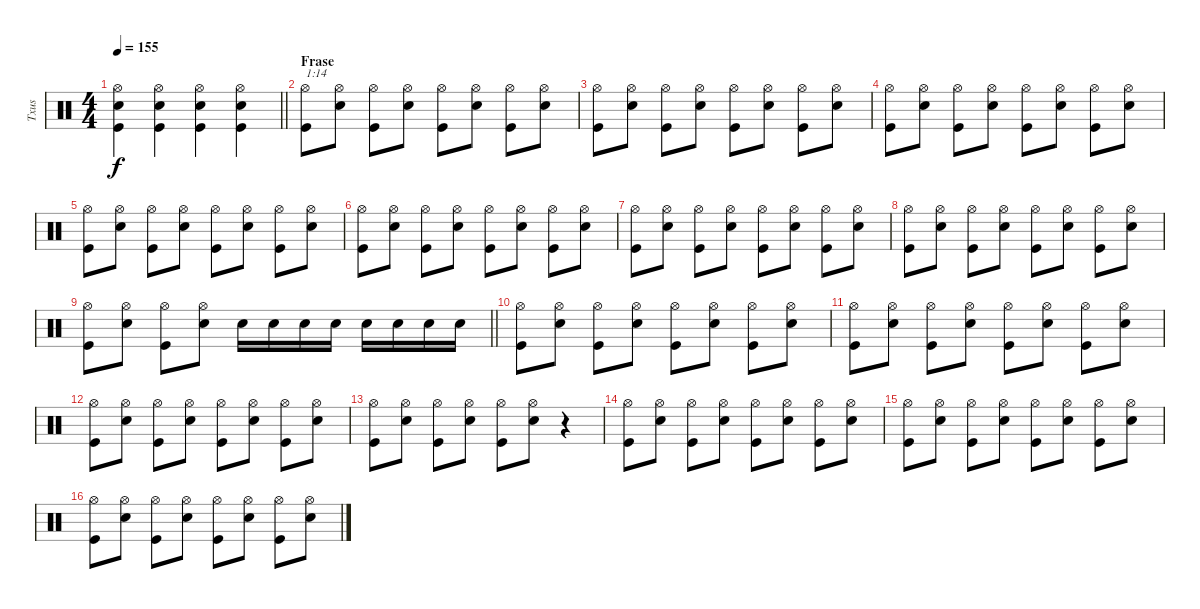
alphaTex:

\track ("Txus" "Txus") {instrument percussion}
\staff {score}
\articulation defaults
\ts (4 4)
\tempo 155
\clef neutral
\barLineRight lightlight
\ks c
("Kick (hit)" "Snare (hit) 2" "Hi-Hat (open)").4{dy f} ("Kick (hit)" "Snare (hit) 2" "Hi-Hat (open)").4 ("Kick (hit)" "Snare (hit) 2" "Hi-Hat (open)").4 ("Kick (hit)" "Snare (hit) 2" "Hi-Hat (open)").4 |
\section ("" "Frase")
("Kick (hit)" "Hi-Hat (open)").8{txt "1:14"} ("Snare (hit) 2" "Hi-Hat (open)").8 ("Kick (hit)" "Hi-Hat (open)").8 ("Snare (hit) 2" "Hi-Hat (open)").8 ("Kick (hit)" "Hi-Hat (open)").8 ("Snare (hit) 2" "Hi-Hat (open)").8 ("Kick (hit)" "Hi-Hat (open)").8 ("Snare (hit) 2" "Hi-Hat (open)").8 |
("Kick (hit)" "Hi-Hat (open)").8 ("Snare (hit) 2" "Hi-Hat (open)").8 ("Kick (hit)" "Hi-Hat (open)").8 ("Snare (hit) 2" "Hi-Hat (open)").8 ("Kick (hit)" "Hi-Hat (open)").8 ("Snare (hit) 2" "Hi-Hat (open)").8 ("Kick (hit)" "Hi-Hat (open)").8 ("Snare (hit) 2" "Hi-Hat (open)").8 |
("Kick (hit)" "Hi-Hat (open)").8 ("Snare (hit) 2" "Hi-Hat (open)").8 ("Kick (hit)" "Hi-Hat (open)").8 ("Snare (hit) 2" "Hi-Hat (open)").8 ("Kick (hit)" "Hi-Hat (open)").8 ("Snare (hit) 2" "Hi-Hat (open)").8 ("Kick (hit)" "Hi-Hat (open)").8 ("Snare (hit) 2" "Hi-Hat (open)").8 |
("Kick (hit)" "Hi-Hat (open)").8 ("Snare (hit) 2" "Hi-Hat (open)").8 ("Kick (hit)" "Hi-Hat (open)").8 ("Snare (hit) 2" "Hi-Hat (open)").8 ("Kick (hit)" "Hi-Hat (open)").8 ("Snare (hit) 2" "Hi-Hat (open)").8 ("Kick (hit)" "Hi-Hat (open)").8 ("Snare (hit) 2" "Hi-Hat (open)").8 |
("Kick (hit)" "Hi-Hat (open)").8 ("Snare (hit) 2" "Hi-Hat (open)").8 ("Kick (hit)" "Hi-Hat (open)").8 ("Snare (hit) 2" "Hi-Hat (open)").8 ("Kick (hit)" "Hi-Hat (open)").8 ("Snare (hit) 2" "Hi-Hat (open)").8 ("Kick (hit)" "Hi-Hat (open)").8 ("Snare (hit) 2" "Hi-Hat (open)").8 |
("Kick (hit)" "Hi-Hat (open)").8 ("Snare (hit) 2" "Hi-Hat (open)").8 ("Kick (hit)" "Hi-Hat (open)").8 ("Snare (hit) 2" "Hi-Hat (open)").8 ("Kick (hit)" "Hi-Hat (open)").8 ("Snare (hit) 2" "Hi-Hat (open)").8 ("Kick (hit)" "Hi-Hat (open)").8 ("Snare (hit) 2" "Hi-Hat (open)").8 |
("Kick (hit)" "Hi-Hat (open)").8 ("Snare (hit) 2" "Hi-Hat (open)").8 ("Kick (hit)" "Hi-Hat (open)").8 ("Snare (hit) 2" "Hi-Hat (open)").8 ("Kick (hit)" "Hi-Hat (open)").8 ("Snare (hit) 2" "Hi-Hat (open)").8 ("Kick (hit)" "Hi-Hat (open)").8 ("Snare (hit) 2" "Hi-Hat (open)").8 |
\barLineRight lightlight
("Kick (hit)" "Hi-Hat (open)").8 ("Snare (hit) 2" "Hi-Hat (open)").8 ("Kick (hit)" "Hi-Hat (open)").8 ("Snare (hit) 2" "Hi-Hat (open)").8 "Snare (hit) 2".16 "Snare (hit) 2".16 "Snare (hit) 2".16 "Snare (hit) 2".16 "Snare (hit) 2".16 "Snare (hit) 2".16 "Snare (hit) 2".16 "Snare (hit) 2".16 |
("Kick (hit)" "Hi-Hat (open)").8 ("Snare (hit) 2" "Hi-Hat (open)").8 ("Kick (hit)" "Hi-Hat (open)").8 ("Snare (hit) 2" "Hi-Hat (open)").8 ("Kick (hit)" "Hi-Hat (open)").8 ("Snare (hit) 2" "Hi-Hat (open)").8 ("Kick (hit)" "Hi-Hat (open)").8 ("Snare (hit) 2" "Hi-Hat (open)").8 |
("Kick (hit)" "Hi-Hat (open)").8 ("Snare (hit) 2" "Hi-Hat (open)").8 ("Kick (hit)" "Hi-Hat (open)").8 ("Snare (hit) 2" "Hi-Hat (open)").8 ("Kick (hit)" "Hi-Hat (open)").8 ("Snare (hit) 2" "Hi-Hat (open)").8 ("Kick (hit)" "Hi-Hat (open)").8 ("Snare (hit) 2" "Hi-Hat (open)").8 |
("Kick (hit)" "Hi-Hat (open)").8 ("Snare (hit) 2" "Hi-Hat (open)").8 ("Kick (hit)" "Hi-Hat (open)").8 ("Snare (hit) 2" "Hi-Hat (open)").8 ("Kick (hit)" "Hi-Hat (open)").8 ("Snare (hit) 2" "Hi-Hat (open)").8 ("Kick (hit)" "Hi-Hat (open)").8 ("Snare (hit) 2" "Hi-Hat (open)").8 |
("Kick (hit)" "Hi-Hat (open)").8 ("Snare (hit) 2" "Hi-Hat (open)").8 ("Kick (hit)" "Hi-Hat (open)").8 ("Snare (hit) 2" "Hi-Hat (open)").8 ("Kick (hit)" "Hi-Hat (open)").8 ("Snare (hit) 2" "Hi-Hat (open)").8 r.4 |
("Kick (hit)" "Hi-Hat (open)").8 ("Snare (hit) 2" "Hi-Hat (open)").8 ("Kick (hit)" "Hi-Hat (open)").8 ("Snare (hit) 2" "Hi-Hat (open)").8 ("Kick (hit)" "Hi-Hat (open)").8 ("Snare (hit) 2" "Hi-Hat (open)").8 ("Kick (hit)" "Hi-Hat (open)").8 ("Snare (hit) 2" "Hi-Hat (open)").8 |
("Kick (hit)" "Hi-Hat (open)").8 ("Snare (hit) 2" "Hi-Hat (open)").8 ("Kick (hit)" "Hi-Hat (open)").8 ("Snare (hit) 2" "Hi-Hat (open)").8 ("Kick (hit)" "Hi-Hat (open)").8 ("Snare (hit) 2" "Hi-Hat (open)").8 ("Kick (hit)" "Hi-Hat (open)").8 ("Snare (hit) 2" "Hi-Hat (open)").8 |
("Kick (hit)" "Hi-Hat (open)").8 ("Snare (hit) 2" "Hi-Hat (open)").8 ("Kick (hit)" "Hi-Hat (open)").8 ("Snare (hit) 2" "Hi-Hat (open)").8 ("Kick (hit)" "Hi-Hat (open)").8 ("Snare (hit) 2" "Hi-Hat (open)").8 ("Kick (hit)" "Hi-Hat (open)").8 ("Snare (hit) 2" "Hi-Hat (open)").8
